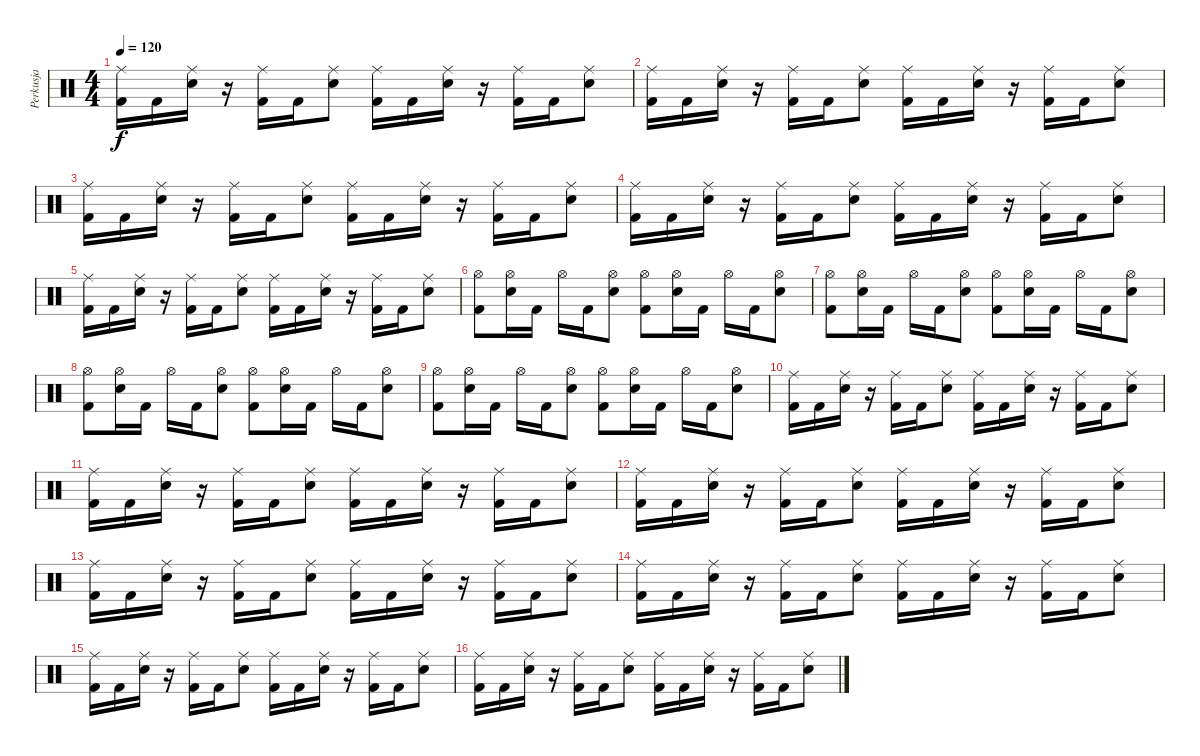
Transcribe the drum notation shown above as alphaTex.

\track ("Perkusja" "Perkusja") {instrument percussion}
\staff {score}
\articulation defaults
\ts (4 4)
\tempo 120
\clef neutral
\ks c
("Ride (middle)" "Kick (hit) 2").16{dy f} "Kick (hit) 2".16 ("Ride (middle)" "Electric Snare (hit)").16 r.16 ("Ride (middle)" "Kick (hit) 2").16 "Kick (hit) 2".16 ("Ride (middle)" "Electric Snare (hit)").8 ("Ride (middle)" "Kick (hit) 2").16 "Kick (hit) 2".16 ("Ride (middle)" "Electric Snare (hit)").16 r.16 ("Ride (middle)" "Kick (hit) 2").16 "Kick (hit) 2".16 ("Ride (middle)" "Electric Snare (hit)").8 |
("Ride (middle)" "Kick (hit) 2").16 "Kick (hit) 2".16 ("Ride (middle)" "Electric Snare (hit)").16 r.16 ("Ride (middle)" "Kick (hit) 2").16 "Kick (hit) 2".16 ("Ride (middle)" "Electric Snare (hit)").8 ("Ride (middle)" "Kick (hit) 2").16 "Kick (hit) 2".16 ("Ride (middle)" "Electric Snare (hit)").16 r.16 ("Ride (middle)" "Kick (hit) 2").16 "Kick (hit) 2".16 ("Ride (middle)" "Electric Snare (hit)").8 |
("Ride (middle)" "Kick (hit) 2").16 "Kick (hit) 2".16 ("Ride (middle)" "Electric Snare (hit)").16 r.16 ("Ride (middle)" "Kick (hit) 2").16 "Kick (hit) 2".16 ("Ride (middle)" "Electric Snare (hit)").8 ("Ride (middle)" "Kick (hit) 2").16 "Kick (hit) 2".16 ("Ride (middle)" "Electric Snare (hit)").16 r.16 ("Ride (middle)" "Kick (hit) 2").16 "Kick (hit) 2".16 ("Ride (middle)" "Electric Snare (hit)").8 |
("Ride (middle)" "Kick (hit) 2").16 "Kick (hit) 2".16 ("Ride (middle)" "Electric Snare (hit)").16 r.16 ("Ride (middle)" "Kick (hit) 2").16 "Kick (hit) 2".16 ("Ride (middle)" "Electric Snare (hit)").8 ("Ride (middle)" "Kick (hit) 2").16 "Kick (hit) 2".16 ("Ride (middle)" "Electric Snare (hit)").16 r.16 ("Ride (middle)" "Kick (hit) 2").16 "Kick (hit) 2".16 ("Ride (middle)" "Electric Snare (hit)").8 |
("Ride (middle)" "Kick (hit) 2").16 "Kick (hit) 2".16 ("Ride (middle)" "Electric Snare (hit)").16 r.16 ("Ride (middle)" "Kick (hit) 2").16 "Kick (hit) 2".16 ("Ride (middle)" "Electric Snare (hit)").8 ("Ride (middle)" "Kick (hit) 2").16 "Kick (hit) 2".16 ("Ride (middle)" "Electric Snare (hit)").16 r.16 ("Ride (middle)" "Kick (hit) 2").16 "Kick (hit) 2".16 ("Ride (middle)" "Electric Snare (hit)").8 |
("Hi-Hat (open)" "Kick (hit) 2").8 ("Hi-Hat (open)" "Electric Snare (hit)").16 "Kick (hit) 2".16 "Hi-Hat (open)".16 "Kick (hit) 2".16 ("Hi-Hat (open)" "Electric Snare (hit)").8 ("Hi-Hat (open)" "Kick (hit) 2").8 ("Hi-Hat (open)" "Electric Snare (hit)").16 "Kick (hit) 2".16 "Hi-Hat (open)".16 "Kick (hit) 2".16 ("Hi-Hat (open)" "Electric Snare (hit)").8 |
("Hi-Hat (open)" "Kick (hit) 2").8 ("Hi-Hat (open)" "Electric Snare (hit)").16 "Kick (hit) 2".16 "Hi-Hat (open)".16 "Kick (hit) 2".16 ("Hi-Hat (open)" "Electric Snare (hit)").8 ("Hi-Hat (open)" "Kick (hit) 2").8 ("Hi-Hat (open)" "Electric Snare (hit)").16 "Kick (hit) 2".16 "Hi-Hat (open)".16 "Kick (hit) 2".16 ("Hi-Hat (open)" "Electric Snare (hit)").8 |
("Hi-Hat (open)" "Kick (hit) 2").8 ("Hi-Hat (open)" "Electric Snare (hit)").16 "Kick (hit) 2".16 "Hi-Hat (open)".16 "Kick (hit) 2".16 ("Hi-Hat (open)" "Electric Snare (hit)").8 ("Hi-Hat (open)" "Kick (hit) 2").8 ("Hi-Hat (open)" "Electric Snare (hit)").16 "Kick (hit) 2".16 "Hi-Hat (open)".16 "Kick (hit) 2".16 ("Hi-Hat (open)" "Electric Snare (hit)").8 |
("Hi-Hat (open)" "Kick (hit) 2").8 ("Hi-Hat (open)" "Electric Snare (hit)").16 "Kick (hit) 2".16 "Hi-Hat (open)".16 "Kick (hit) 2".16 ("Hi-Hat (open)" "Electric Snare (hit)").8 ("Hi-Hat (open)" "Kick (hit) 2").8 ("Hi-Hat (open)" "Electric Snare (hit)").16 "Kick (hit) 2".16 "Hi-Hat (open)".16 "Kick (hit) 2".16 ("Hi-Hat (open)" "Electric Snare (hit)").8 |
("Ride (middle)" "Kick (hit) 2").16 "Kick (hit) 2".16 ("Ride (middle)" "Electric Snare (hit)").16 r.16 ("Ride (middle)" "Kick (hit) 2").16 "Kick (hit) 2".16 ("Ride (middle)" "Electric Snare (hit)").8 ("Ride (middle)" "Kick (hit) 2").16 "Kick (hit) 2".16 ("Ride (middle)" "Electric Snare (hit)").16 r.16 ("Ride (middle)" "Kick (hit) 2").16 "Kick (hit) 2".16 ("Ride (middle)" "Electric Snare (hit)").8 |
("Ride (middle)" "Kick (hit) 2").16 "Kick (hit) 2".16 ("Ride (middle)" "Electric Snare (hit)").16 r.16 ("Ride (middle)" "Kick (hit) 2").16 "Kick (hit) 2".16 ("Ride (middle)" "Electric Snare (hit)").8 ("Ride (middle)" "Kick (hit) 2").16 "Kick (hit) 2".16 ("Ride (middle)" "Electric Snare (hit)").16 r.16 ("Ride (middle)" "Kick (hit) 2").16 "Kick (hit) 2".16 ("Ride (middle)" "Electric Snare (hit)").8 |
("Ride (middle)" "Kick (hit) 2").16 "Kick (hit) 2".16 ("Ride (middle)" "Electric Snare (hit)").16 r.16 ("Ride (middle)" "Kick (hit) 2").16 "Kick (hit) 2".16 ("Ride (middle)" "Electric Snare (hit)").8 ("Ride (middle)" "Kick (hit) 2").16 "Kick (hit) 2".16 ("Ride (middle)" "Electric Snare (hit)").16 r.16 ("Ride (middle)" "Kick (hit) 2").16 "Kick (hit) 2".16 ("Ride (middle)" "Electric Snare (hit)").8 |
("Ride (middle)" "Kick (hit) 2").16 "Kick (hit) 2".16 ("Ride (middle)" "Electric Snare (hit)").16 r.16 ("Ride (middle)" "Kick (hit) 2").16 "Kick (hit) 2".16 ("Ride (middle)" "Electric Snare (hit)").8 ("Ride (middle)" "Kick (hit) 2").16 "Kick (hit) 2".16 ("Ride (middle)" "Electric Snare (hit)").16 r.16 ("Ride (middle)" "Kick (hit) 2").16 "Kick (hit) 2".16 ("Ride (middle)" "Electric Snare (hit)").8 |
("Ride (middle)" "Kick (hit) 2").16 "Kick (hit) 2".16 ("Ride (middle)" "Electric Snare (hit)").16 r.16 ("Ride (middle)" "Kick (hit) 2").16 "Kick (hit) 2".16 ("Ride (middle)" "Electric Snare (hit)").8 ("Ride (middle)" "Kick (hit) 2").16 "Kick (hit) 2".16 ("Ride (middle)" "Electric Snare (hit)").16 r.16 ("Ride (middle)" "Kick (hit) 2").16 "Kick (hit) 2".16 ("Ride (middle)" "Electric Snare (hit)").8 |
("Ride (middle)" "Kick (hit) 2").16 "Kick (hit) 2".16 ("Ride (middle)" "Electric Snare (hit)").16 r.16 ("Ride (middle)" "Kick (hit) 2").16 "Kick (hit) 2".16 ("Ride (middle)" "Electric Snare (hit)").8 ("Ride (middle)" "Kick (hit) 2").16 "Kick (hit) 2".16 ("Ride (middle)" "Electric Snare (hit)").16 r.16 ("Ride (middle)" "Kick (hit) 2").16 "Kick (hit) 2".16 ("Ride (middle)" "Electric Snare (hit)").8 |
("Ride (middle)" "Kick (hit) 2").16 "Kick (hit) 2".16 ("Ride (middle)" "Electric Snare (hit)").16 r.16 ("Ride (middle)" "Kick (hit) 2").16 "Kick (hit) 2".16 ("Ride (middle)" "Electric Snare (hit)").8 ("Ride (middle)" "Kick (hit) 2").16 "Kick (hit) 2".16 ("Ride (middle)" "Electric Snare (hit)").16 r.16 ("Ride (middle)" "Kick (hit) 2").16 "Kick (hit) 2".16 ("Ride (middle)" "Electric Snare (hit)").8
